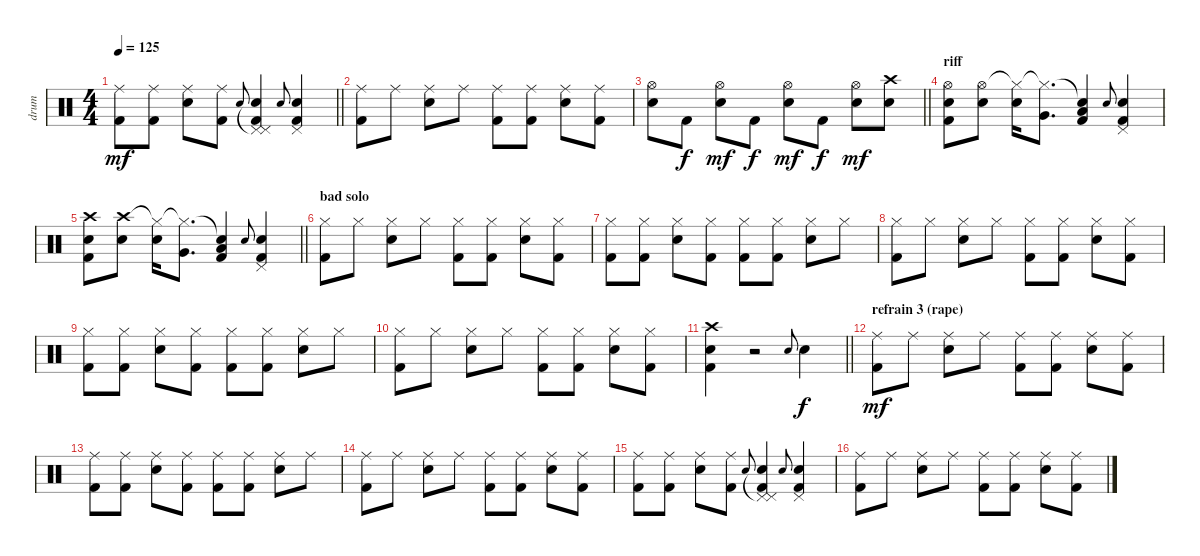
\track ("drum" "drum") {instrument percussion}
\staff {score}
\articulation defaults
\ts (4 4)
\tempo 125
\clef neutral
\barLineRight lightlight
\ks c
("Ride (middle)" "Kick (hit) 2").8{dy mf} ("Ride (middle)" "Kick (hit) 2").8 ("Ride (middle)" "Electric Snare (hit)").8 ("Ride (middle)" "Kick (hit) 2").8 "Electric Snare (hit)".8{gr onbeat} ("Pedal Hi-Hat (hit)"{t} "Pedal Hi-Hat (hit)" "Electric Snare (hit)" "Kick (hit) 2").4 "Electric Snare (hit)".8{gr onbeat} ("Pedal Hi-Hat (hit)" "Electric Snare (hit)" "Kick (hit) 2").4 |
("Ride (middle)" "Kick (hit) 2").8 "Ride (middle)".8 ("Ride (middle)" "Electric Snare (hit)").8 "Ride (middle)".8 ("Ride (middle)" "Kick (hit) 2").8 ("Ride (middle)" "Kick (hit) 2").8 ("Ride (middle)" "Electric Snare (hit)").8 ("Ride (middle)" "Kick (hit) 2").8 |
\barLineRight lightlight
("Hi-Hat (open)" "Electric Snare (hit)").8 "Kick (hit) 2".8{dy f} ("Hi-Hat (open)" "Electric Snare (hit)").8{dy mf} "Kick (hit) 2".8{dy f} ("Hi-Hat (open)" "Electric Snare (hit)").8{dy mf} "Kick (hit) 2".8{dy f} ("Hi-Hat (open)" "Electric Snare (hit)").8{dy mf} ("Crash high (hit)" "Electric Snare (hit)").8 |
\section ("" "riff")
("Hi-Hat (open)" "Electric Snare (hit)" "Kick (hit) 2").8 ("Hi-Hat (open)" "Electric Snare (hit)").8 ("Hi-Hat (closed)"{t} "Electric Snare (hit)").16 ("Hi-Hat (closed)"{t} "Very Low Tom (hit)").8{d} ("Snare (hit)"{t} "Low Floor Tom (hit)" "Kick (hit) 2").4 "Electric Snare (hit)".8{gr onbeat} ("Pedal Hi-Hat (hit)" "Electric Snare (hit)" "Kick (hit) 2").4 |
\barLineRight lightlight
("Crash high (hit)" "Electric Snare (hit)" "Kick (hit) 2").8 ("Crash high (hit)" "Electric Snare (hit)").8 ("Hi-Hat (closed)"{t} "Electric Snare (hit)").16 ("Hi-Hat (closed)"{t} "Very Low Tom (hit)").8{d} ("Snare (hit)"{t} "Low Floor Tom (hit)" "Kick (hit) 2").4 "Electric Snare (hit)".8{gr onbeat} ("Pedal Hi-Hat (hit)" "Electric Snare (hit)" "Kick (hit) 2").4 |
\section ("" "bad solo")
("Hi-Hat (closed)" "Kick (hit) 2").8 "Hi-Hat (closed)".8 ("Hi-Hat (closed)" "Electric Snare (hit)").8 "Hi-Hat (closed)".8 ("Hi-Hat (closed)" "Kick (hit) 2").8 ("Hi-Hat (closed)" "Kick (hit) 2").8 ("Hi-Hat (closed)" "Electric Snare (hit)").8 ("Hi-Hat (closed)" "Kick (hit) 2").8 |
("Hi-Hat (closed)" "Kick (hit) 2").8 ("Hi-Hat (closed)" "Kick (hit) 2").8 ("Hi-Hat (closed)" "Electric Snare (hit)").8 ("Hi-Hat (closed)" "Kick (hit) 2").8 ("Hi-Hat (closed)" "Kick (hit) 2").8 ("Hi-Hat (closed)" "Kick (hit) 2").8 ("Hi-Hat (closed)" "Electric Snare (hit)").8 "Hi-Hat (closed)".8 |
("Hi-Hat (closed)" "Kick (hit) 2").8 "Hi-Hat (closed)".8 ("Hi-Hat (closed)" "Electric Snare (hit)").8 "Hi-Hat (closed)".8 ("Hi-Hat (closed)" "Kick (hit) 2").8 ("Hi-Hat (closed)" "Kick (hit) 2").8 ("Hi-Hat (closed)" "Electric Snare (hit)").8 ("Hi-Hat (closed)" "Kick (hit) 2").8 |
("Hi-Hat (closed)" "Kick (hit) 2").8 ("Hi-Hat (closed)" "Kick (hit) 2").8 ("Hi-Hat (closed)" "Electric Snare (hit)").8 ("Hi-Hat (closed)" "Kick (hit) 2").8 ("Hi-Hat (closed)" "Kick (hit) 2").8 ("Hi-Hat (closed)" "Kick (hit) 2").8 ("Hi-Hat (closed)" "Electric Snare (hit)").8 "Hi-Hat (closed)".8 |
("Hi-Hat (closed)" "Kick (hit) 2").8 "Hi-Hat (closed)".8 ("Hi-Hat (closed)" "Electric Snare (hit)").8 "Hi-Hat (closed)".8 ("Hi-Hat (closed)" "Kick (hit) 2").8 ("Hi-Hat (closed)" "Kick (hit) 2").8 ("Hi-Hat (closed)" "Electric Snare (hit)").8 ("Hi-Hat (closed)" "Kick (hit) 2").8 |
\barLineRight lightlight
("Crash high (hit)" "Electric Snare (hit)" "Kick (hit) 2").4 r.2 "Electric Snare (hit)".8{gr onbeat} "Electric Snare (hit)".4{dy f} |
\section ("" "refrain 3 (rape)")
("Ride (middle)" "Kick (hit) 2").8{dy mf} "Ride (middle)".8 ("Ride (middle)" "Electric Snare (hit)").8 "Ride (middle)".8 ("Ride (middle)" "Kick (hit) 2").8 ("Ride (middle)" "Kick (hit) 2").8 ("Ride (middle)" "Electric Snare (hit)").8 ("Ride (middle)" "Kick (hit) 2").8 |
("Ride (middle)" "Kick (hit) 2").8 ("Ride (middle)" "Kick (hit) 2").8 ("Ride (middle)" "Electric Snare (hit)").8 ("Ride (middle)" "Kick (hit) 2").8 ("Ride (middle)" "Kick (hit) 2").8 ("Ride (middle)" "Kick (hit) 2").8 ("Ride (middle)" "Electric Snare (hit)").8 "Ride (middle)".8 |
("Ride (middle)" "Kick (hit) 2").8 "Ride (middle)".8 ("Ride (middle)" "Electric Snare (hit)").8 "Ride (middle)".8 ("Ride (middle)" "Kick (hit) 2").8 ("Ride (middle)" "Kick (hit) 2").8 ("Ride (middle)" "Electric Snare (hit)").8 ("Ride (middle)" "Kick (hit) 2").8 |
("Ride (middle)" "Kick (hit) 2").8 ("Ride (middle)" "Kick (hit) 2").8 ("Ride (middle)" "Electric Snare (hit)").8 ("Ride (middle)" "Kick (hit) 2").8 "Electric Snare (hit)".8{gr onbeat} ("Pedal Hi-Hat (hit)"{t} "Pedal Hi-Hat (hit)" "Electric Snare (hit)" "Kick (hit) 2").4 "Electric Snare (hit)".8{gr onbeat} ("Pedal Hi-Hat (hit)" "Electric Snare (hit)" "Kick (hit) 2").4 |
("Ride (middle)" "Kick (hit) 2").8 "Ride (middle)".8 ("Ride (middle)" "Electric Snare (hit)").8 "Ride (middle)".8 ("Ride (middle)" "Kick (hit) 2").8 ("Ride (middle)" "Kick (hit) 2").8 ("Ride (middle)" "Electric Snare (hit)").8 ("Ride (middle)" "Kick (hit) 2").8
